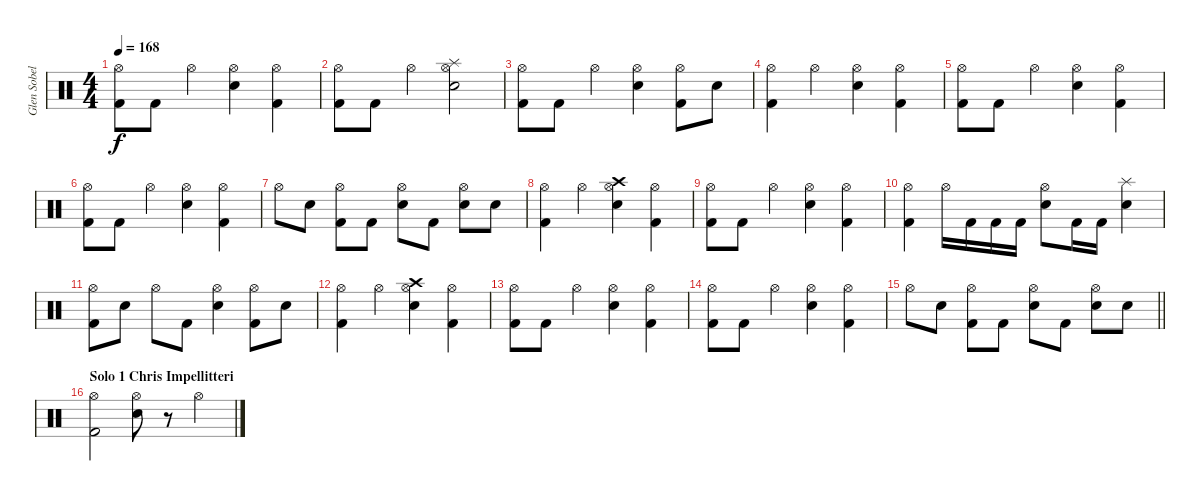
\track ("Glen Sobel" "Glen Sobel") {instrument percussion}
\staff {score}
\articulation defaults
\ts (4 4)
\tempo 168
\clef neutral
\ks c
("Hi-Hat (open)" "Kick (hit) 2").8{dy f} "Kick (hit) 2".8 "Hi-Hat (open)".4 ("Hi-Hat (open)" "Snare (hit) 2").4 ("Hi-Hat (open)" "Kick (hit) 2").4 |
("Hi-Hat (open)" "Kick (hit) 2").8 "Kick (hit) 2".8 "Hi-Hat (open)".4 ("Hi-Hat (open)" "Snare (hit) 2" "Splash (hit)").2 |
("Hi-Hat (open)" "Kick (hit) 2").8 "Kick (hit) 2".8 "Hi-Hat (open)".4 ("Hi-Hat (open)" "Snare (hit) 2").4 ("Hi-Hat (open)" "Kick (hit) 2").8 "Snare (hit) 2".8 |
("Hi-Hat (open)" "Kick (hit) 2").4 "Hi-Hat (open)".4 ("Hi-Hat (open)" "Snare (hit) 2").4 ("Hi-Hat (open)" "Kick (hit) 2").4 |
("Hi-Hat (open)" "Kick (hit) 2").8 "Kick (hit) 2".8 "Hi-Hat (open)".4 ("Hi-Hat (open)" "Snare (hit) 2").4 ("Hi-Hat (open)" "Kick (hit) 2").4 |
("Hi-Hat (open)" "Kick (hit) 2").8 "Kick (hit) 2".8 "Hi-Hat (open)".4 ("Hi-Hat (open)" "Snare (hit) 2").4 ("Hi-Hat (open)" "Kick (hit) 2").4 |
"Hi-Hat (open)".8 "Snare (hit) 2".8 ("Hi-Hat (open)" "Kick (hit) 2").8 "Kick (hit) 2".8 ("Hi-Hat (open)" "Snare (hit) 2").8 "Kick (hit) 2".8 ("Hi-Hat (open)" "Snare (hit) 2").8 "Snare (hit) 2".8 |
("Hi-Hat (open)" "Kick (hit) 2").4 "Hi-Hat (open)".4 ("Hi-Hat (open)" "Snare (hit) 2" "Crash high (hit)").4 ("Hi-Hat (open)" "Kick (hit) 2").4 |
("Hi-Hat (open)" "Kick (hit) 2").8 "Kick (hit) 2".8 "Hi-Hat (open)".4 ("Hi-Hat (open)" "Snare (hit) 2").4 ("Hi-Hat (open)" "Kick (hit) 2").4 |
("Hi-Hat (open)" "Kick (hit) 2").4 "Hi-Hat (open)".16 "Kick (hit) 2".16 "Kick (hit) 2".16 "Kick (hit) 2".16 ("Hi-Hat (open)" "Snare (hit) 2").8 "Kick (hit) 2".16 "Kick (hit) 2".16 ("Snare (hit) 2" "Splash (hit)").4 |
("Hi-Hat (open)" "Kick (hit) 2").8 "Snare (hit) 2".8 "Hi-Hat (open)".8 "Kick (hit) 2".8 ("Hi-Hat (open)" "Snare (hit) 2").4 ("Hi-Hat (open)" "Kick (hit) 2").8 "Snare (hit) 2".8 |
("Hi-Hat (open)" "Kick (hit) 2").4 "Hi-Hat (open)".4 ("Hi-Hat (open)" "Snare (hit) 2" "Crash high (hit)").4 ("Hi-Hat (open)" "Kick (hit) 2").4 |
("Hi-Hat (open)" "Kick (hit) 2").8 "Kick (hit) 2".8 "Hi-Hat (open)".4 ("Hi-Hat (open)" "Snare (hit) 2").4 ("Hi-Hat (open)" "Kick (hit) 2").4 |
("Hi-Hat (open)" "Kick (hit) 2").8 "Kick (hit) 2".8 "Hi-Hat (open)".4 ("Hi-Hat (open)" "Snare (hit) 2").4 ("Hi-Hat (open)" "Kick (hit) 2").4 |
\barLineRight lightlight "Hi-Hat (open)".8 "Snare (hit) 2".8
("Hi-Hat (open)" "Kick (hit) 2").8 "Kick (hit) 2".8 ("Hi-Hat (open)" "Snare (hit) 2").8 "Kick (hit) 2".8 ("Hi-Hat (open)" "Snare (hit) 2").8 "Snare (hit) 2".8 |
\section ("" "Solo 1 Chris Impellitteri")
("Hi-Hat (open)" "Kick (hit) 2").2 ("Hi-Hat (open)" "Snare (hit) 2").8 r.8 "Hi-Hat (open)".4
